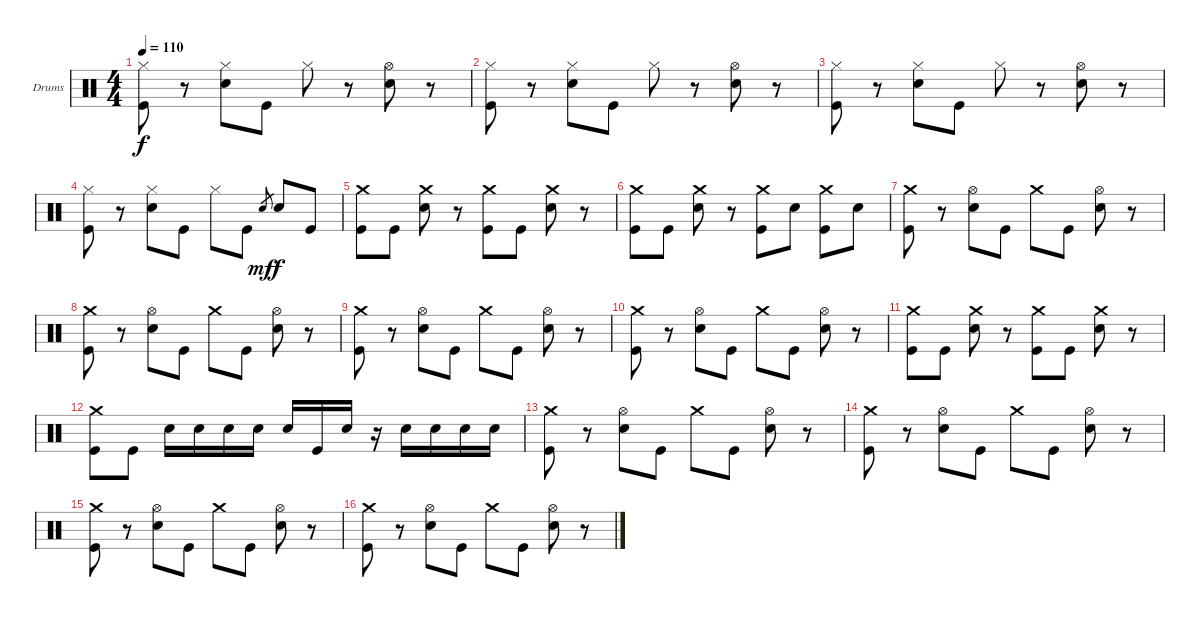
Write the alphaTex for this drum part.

\bracketExtendMode groupsimilarinstruments
\firstSystemTrackNameOrientation horizontal
\otherSystemsTrackNameOrientation horizontal
\track ("Drumkit" "Drums") {instrument percussion}
\staff {score}
\articulation defaults
\ts (4 4)
\tempo 110
\clef neutral
\ks c
("Hi-Hat (closed)" "Kick (hit)").8{dy f} r.8 ("Hi-Hat (closed)" "Snare (hit) 2").8 "Kick (hit)".8 "Hi-Hat (closed)".8 r.8 ("Hi-Hat (open)" "Snare (hit) 2").8 r.8 |
("Hi-Hat (closed)" "Kick (hit)").8 r.8 ("Hi-Hat (closed)" "Snare (hit) 2").8 "Kick (hit)".8 "Hi-Hat (closed)".8 r.8 ("Hi-Hat (open)" "Snare (hit) 2").8 r.8 |
("Hi-Hat (closed)" "Kick (hit)").8 r.8 ("Hi-Hat (closed)" "Snare (hit) 2").8 "Kick (hit)".8 "Hi-Hat (closed)".8 r.8 ("Hi-Hat (open)" "Snare (hit) 2").8 r.8 |
("Hi-Hat (closed)" "Kick (hit)").8 r.8 ("Hi-Hat (closed)" "Snare (hit) 2").8 "Kick (hit)".8 "Hi-Hat (closed)".8 "Kick (hit)".8 "Snare (hit) 2".8{gr dy mf} "Snare (hit) 2".8{dy f} "Kick (hit)".8 |
("Crash medium (hit)" "Kick (hit)").8 "Kick (hit)".8 ("Crash medium (hit)" "Snare (hit) 2").8 r.8 ("Crash medium (hit)" "Kick (hit)").8 "Kick (hit)".8 ("Crash medium (hit)" "Snare (hit) 2").8 r.8 |
("Crash medium (hit)" "Kick (hit)").8 "Kick (hit)".8 ("Crash medium (hit)" "Snare (hit) 2").8 r.8 ("Crash medium (hit)" "Kick (hit)").8 "Snare (hit) 2".8 ("Crash medium (hit)" "Kick (hit)").8 "Snare (hit) 2".8 |
("Crash medium (hit)" "Kick (hit)").8 r.8 ("Hi-Hat (open)" "Snare (hit) 2").8 "Kick (hit)".8 "Crash medium (hit)".8 "Kick (hit)".8 ("Hi-Hat (open)" "Snare (hit) 2").8 r.8 |
("Crash medium (hit)" "Kick (hit)").8 r.8 ("Hi-Hat (open)" "Snare (hit) 2").8 "Kick (hit)".8 "Crash medium (hit)".8 "Kick (hit)".8 ("Hi-Hat (open)" "Snare (hit) 2").8 r.8 |
("Crash medium (hit)" "Kick (hit)").8 r.8 ("Hi-Hat (open)" "Snare (hit) 2").8 "Kick (hit)".8 "Crash medium (hit)".8 "Kick (hit)".8 ("Hi-Hat (open)" "Snare (hit) 2").8 r.8 |
("Crash medium (hit)" "Kick (hit)").8 r.8 ("Hi-Hat (open)" "Snare (hit) 2").8 "Kick (hit)".8 "Crash medium (hit)".8 "Kick (hit)".8 ("Hi-Hat (open)" "Snare (hit) 2").8 r.8 |
("Crash medium (hit)" "Kick (hit)").8 "Kick (hit)".8 ("Crash medium (hit)" "Snare (hit) 2").8 r.8 ("Crash medium (hit)" "Kick (hit)").8 "Kick (hit)".8 ("Crash medium (hit)" "Snare (hit) 2").8 r.8 |
("Crash medium (hit)" "Kick (hit)").8 "Kick (hit)".8 "Snare (hit) 2".16 "Snare (hit) 2".16 "Snare (hit) 2".16 "Snare (hit) 2".16 "Snare (hit) 2".16 "Kick (hit)".16 "Snare (hit) 2".16 r.16 "Snare (hit) 2".16 "Snare (hit) 2".16 "Snare (hit) 2".16 "Snare (hit) 2".16 |
("Crash medium (hit)" "Kick (hit)").8 r.8 ("Hi-Hat (open)" "Snare (hit) 2").8 "Kick (hit)".8 "Crash medium (hit)".8 "Kick (hit)".8 ("Hi-Hat (open)" "Snare (hit) 2").8 r.8 |
("Crash medium (hit)" "Kick (hit)").8 r.8 ("Hi-Hat (open)" "Snare (hit) 2").8 "Kick (hit)".8 "Crash medium (hit)".8 "Kick (hit)".8 ("Hi-Hat (open)" "Snare (hit) 2").8 r.8 |
("Crash medium (hit)" "Kick (hit)").8 r.8 ("Hi-Hat (open)" "Snare (hit) 2").8 "Kick (hit)".8 "Crash medium (hit)".8 "Kick (hit)".8 ("Hi-Hat (open)" "Snare (hit) 2").8 r.8 |
("Crash medium (hit)" "Kick (hit)").8 r.8 ("Hi-Hat (open)" "Snare (hit) 2").8 "Kick (hit)".8 "Crash medium (hit)".8 "Kick (hit)".8 ("Hi-Hat (open)" "Snare (hit) 2").8 r.8
